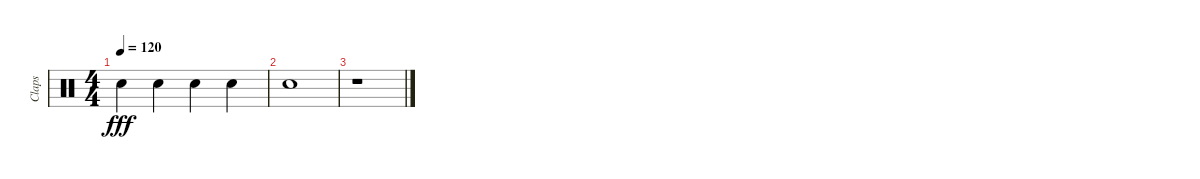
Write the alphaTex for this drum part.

\track ("Claps" "Claps") {instrument percussion}
\staff {score}
\articulation defaults
\ts (4 4)
\tempo 120
\clef neutral
\ks c "Hand Clap (hit)".4{dy fff} "Hand Clap (hit)".4 "Hand Clap (hit)".4 "Hand Clap (hit)".4
|
"Hand Clap (hit)".1 |
r.1
